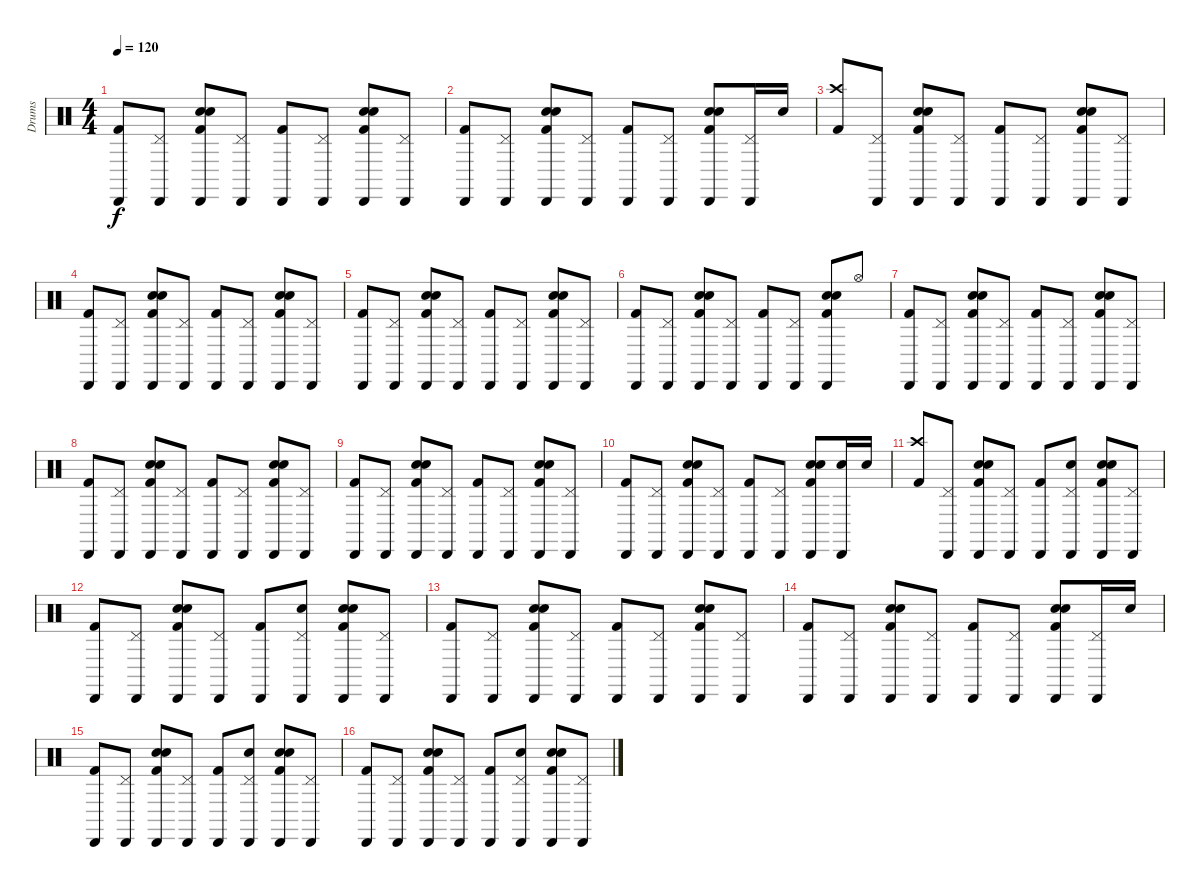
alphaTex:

\track ("Drums" "Drums") {instrument percussion}
\staff {score}
\articulation defaults
\ts (4 4)
\tempo 120
\clef neutral
\ks c
("Cabasa (hit)" "Kick (hit) 2").8{dy f} ("Cabasa (hit)" "Pedal Hi-Hat (hit)").8 ("Hand Clap (hit)" "Cabasa (hit)" "Electric Snare (hit)" "Kick (hit) 2").8 ("Cabasa (hit)" "Pedal Hi-Hat (hit)").8 ("Cabasa (hit)" "Kick (hit) 2").8 ("Cabasa (hit)" "Pedal Hi-Hat (hit)").8 ("Hand Clap (hit)" "Cabasa (hit)" "Electric Snare (hit)" "Kick (hit) 2").8 ("Cabasa (hit)" "Pedal Hi-Hat (hit)").8 |
("Cabasa (hit)" "Kick (hit) 2").8 ("Cabasa (hit)" "Pedal Hi-Hat (hit)").8 ("Hand Clap (hit)" "Cabasa (hit)" "Electric Snare (hit)" "Kick (hit) 2").8 ("Cabasa (hit)" "Pedal Hi-Hat (hit)").8 ("Cabasa (hit)" "Kick (hit) 2").8 ("Cabasa (hit)" "Pedal Hi-Hat (hit)").8 ("Hand Clap (hit)" "Cabasa (hit)" "Electric Snare (hit)" "Kick (hit) 2").8 ("Cabasa (hit)" "Pedal Hi-Hat (hit)").16 "Electric Snare (hit)".16 |
("Crash high (hit)" "Kick (hit) 2").8 ("Cabasa (hit)" "Pedal Hi-Hat (hit)").8 ("Hand Clap (hit)" "Cabasa (hit)" "Electric Snare (hit)" "Kick (hit) 2").8 ("Cabasa (hit)" "Pedal Hi-Hat (hit)").8 ("Cabasa (hit)" "Kick (hit) 2").8 ("Cabasa (hit)" "Pedal Hi-Hat (hit)").8 ("Hand Clap (hit)" "Cabasa (hit)" "Electric Snare (hit)" "Kick (hit) 2").8 ("Cabasa (hit)" "Pedal Hi-Hat (hit)").8 |
("Cabasa (hit)" "Kick (hit) 2").8 ("Cabasa (hit)" "Pedal Hi-Hat (hit)").8 ("Hand Clap (hit)" "Cabasa (hit)" "Electric Snare (hit)" "Kick (hit) 2").8 ("Cabasa (hit)" "Pedal Hi-Hat (hit)").8 ("Cabasa (hit)" "Kick (hit) 2").8 ("Cabasa (hit)" "Pedal Hi-Hat (hit)").8 ("Hand Clap (hit)" "Cabasa (hit)" "Electric Snare (hit)" "Kick (hit) 2").8 ("Cabasa (hit)" "Pedal Hi-Hat (hit)").8 |
("Cabasa (hit)" "Kick (hit) 2").8 ("Cabasa (hit)" "Pedal Hi-Hat (hit)").8 ("Hand Clap (hit)" "Cabasa (hit)" "Electric Snare (hit)" "Kick (hit) 2").8 ("Cabasa (hit)" "Pedal Hi-Hat (hit)").8 ("Cabasa (hit)" "Kick (hit) 2").8 ("Cabasa (hit)" "Pedal Hi-Hat (hit)").8 ("Hand Clap (hit)" "Cabasa (hit)" "Electric Snare (hit)" "Kick (hit) 2").8 ("Cabasa (hit)" "Pedal Hi-Hat (hit)").8 |
("Cabasa (hit)" "Kick (hit) 2").8 ("Cabasa (hit)" "Pedal Hi-Hat (hit)").8 ("Hand Clap (hit)" "Cabasa (hit)" "Electric Snare (hit)" "Kick (hit) 2").8 ("Cabasa (hit)" "Pedal Hi-Hat (hit)").8 ("Cabasa (hit)" "Kick (hit) 2").8 ("Cabasa (hit)" "Pedal Hi-Hat (hit)").8 ("Hand Clap (hit)" "Cabasa (hit)" "Electric Snare (hit)" "Kick (hit) 2").8 "Hi-Hat (open)".8 |
("Cabasa (hit)" "Kick (hit) 2").8 ("Cabasa (hit)" "Pedal Hi-Hat (hit)").8 ("Hand Clap (hit)" "Cabasa (hit)" "Electric Snare (hit)" "Kick (hit) 2").8 ("Cabasa (hit)" "Pedal Hi-Hat (hit)").8 ("Cabasa (hit)" "Kick (hit) 2").8 ("Cabasa (hit)" "Pedal Hi-Hat (hit)").8 ("Hand Clap (hit)" "Cabasa (hit)" "Electric Snare (hit)" "Kick (hit) 2").8 ("Cabasa (hit)" "Pedal Hi-Hat (hit)").8 |
("Cabasa (hit)" "Kick (hit) 2").8 ("Cabasa (hit)" "Pedal Hi-Hat (hit)").8 ("Hand Clap (hit)" "Cabasa (hit)" "Electric Snare (hit)" "Kick (hit) 2").8 ("Cabasa (hit)" "Pedal Hi-Hat (hit)").8 ("Cabasa (hit)" "Kick (hit) 2").8 ("Cabasa (hit)" "Pedal Hi-Hat (hit)").8 ("Hand Clap (hit)" "Cabasa (hit)" "Electric Snare (hit)" "Kick (hit) 2").8 ("Cabasa (hit)" "Pedal Hi-Hat (hit)").8 |
("Cabasa (hit)" "Kick (hit) 2").8 ("Cabasa (hit)" "Pedal Hi-Hat (hit)").8 ("Hand Clap (hit)" "Cabasa (hit)" "Electric Snare (hit)" "Kick (hit) 2").8 ("Cabasa (hit)" "Pedal Hi-Hat (hit)").8 ("Cabasa (hit)" "Kick (hit) 2").8 ("Cabasa (hit)" "Pedal Hi-Hat (hit)").8 ("Hand Clap (hit)" "Cabasa (hit)" "Electric Snare (hit)" "Kick (hit) 2").8 ("Cabasa (hit)" "Pedal Hi-Hat (hit)").8 |
("Cabasa (hit)" "Kick (hit) 2").8 ("Cabasa (hit)" "Pedal Hi-Hat (hit)").8 ("Hand Clap (hit)" "Cabasa (hit)" "Electric Snare (hit)" "Kick (hit) 2").8 ("Cabasa (hit)" "Pedal Hi-Hat (hit)").8 ("Cabasa (hit)" "Kick (hit) 2").8 ("Cabasa (hit)" "Pedal Hi-Hat (hit)").8 ("Hand Clap (hit)" "Cabasa (hit)" "Electric Snare (hit)" "Kick (hit) 2").8 ("Cabasa (hit)" "Electric Snare (hit)").16 "Electric Snare (hit)".16 |
("Crash high (hit)" "Kick (hit) 2").8 ("Cabasa (hit)" "Pedal Hi-Hat (hit)").8 ("Hand Clap (hit)" "Cabasa (hit)" "Electric Snare (hit)" "Kick (hit) 2").8 ("Cabasa (hit)" "Pedal Hi-Hat (hit)").8 ("Cabasa (hit)" "Kick (hit) 2").8 ("Hand Clap (hit)" "Cabasa (hit)" "Pedal Hi-Hat (hit)").8 ("Hand Clap (hit)" "Cabasa (hit)" "Electric Snare (hit)" "Kick (hit) 2").8 ("Cabasa (hit)" "Pedal Hi-Hat (hit)").8 |
("Cabasa (hit)" "Kick (hit) 2").8 ("Cabasa (hit)" "Pedal Hi-Hat (hit)").8 ("Hand Clap (hit)" "Cabasa (hit)" "Electric Snare (hit)" "Kick (hit) 2").8 ("Cabasa (hit)" "Pedal Hi-Hat (hit)").8 ("Cabasa (hit)" "Kick (hit) 2").8 ("Hand Clap (hit)" "Cabasa (hit)" "Pedal Hi-Hat (hit)").8 ("Hand Clap (hit)" "Cabasa (hit)" "Electric Snare (hit)" "Kick (hit) 2").8 ("Cabasa (hit)" "Pedal Hi-Hat (hit)").8 |
("Cabasa (hit)" "Kick (hit) 2").8 ("Cabasa (hit)" "Pedal Hi-Hat (hit)").8 ("Hand Clap (hit)" "Cabasa (hit)" "Electric Snare (hit)" "Kick (hit) 2").8 ("Cabasa (hit)" "Pedal Hi-Hat (hit)").8 ("Cabasa (hit)" "Kick (hit) 2").8 ("Cabasa (hit)" "Pedal Hi-Hat (hit)").8 ("Hand Clap (hit)" "Cabasa (hit)" "Electric Snare (hit)" "Kick (hit) 2").8 ("Cabasa (hit)" "Pedal Hi-Hat (hit)").8 |
("Cabasa (hit)" "Kick (hit) 2").8 ("Cabasa (hit)" "Pedal Hi-Hat (hit)").8 ("Hand Clap (hit)" "Cabasa (hit)" "Electric Snare (hit)" "Kick (hit) 2").8 ("Cabasa (hit)" "Pedal Hi-Hat (hit)").8 ("Cabasa (hit)" "Kick (hit) 2").8 ("Cabasa (hit)" "Pedal Hi-Hat (hit)").8 ("Hand Clap (hit)" "Cabasa (hit)" "Electric Snare (hit)" "Kick (hit) 2").8 ("Cabasa (hit)" "Pedal Hi-Hat (hit)").16 "Electric Snare (hit)".16 |
("Cabasa (hit)" "Kick (hit) 2").8 ("Cabasa (hit)" "Pedal Hi-Hat (hit)").8 ("Hand Clap (hit)" "Cabasa (hit)" "Electric Snare (hit)" "Kick (hit) 2").8 ("Cabasa (hit)" "Pedal Hi-Hat (hit)").8 ("Cabasa (hit)" "Kick (hit) 2").8 ("Hand Clap (hit)" "Cabasa (hit)" "Pedal Hi-Hat (hit)").8 ("Hand Clap (hit)" "Cabasa (hit)" "Electric Snare (hit)" "Kick (hit) 2").8 ("Cabasa (hit)" "Pedal Hi-Hat (hit)").8 |
("Cabasa (hit)" "Kick (hit) 2").8 ("Cabasa (hit)" "Pedal Hi-Hat (hit)").8 ("Hand Clap (hit)" "Cabasa (hit)" "Electric Snare (hit)" "Kick (hit) 2").8 ("Cabasa (hit)" "Pedal Hi-Hat (hit)").8 ("Cabasa (hit)" "Kick (hit) 2").8 ("Hand Clap (hit)" "Cabasa (hit)" "Pedal Hi-Hat (hit)").8 ("Hand Clap (hit)" "Cabasa (hit)" "Electric Snare (hit)" "Kick (hit) 2").8 ("Cabasa (hit)" "Pedal Hi-Hat (hit)").8
